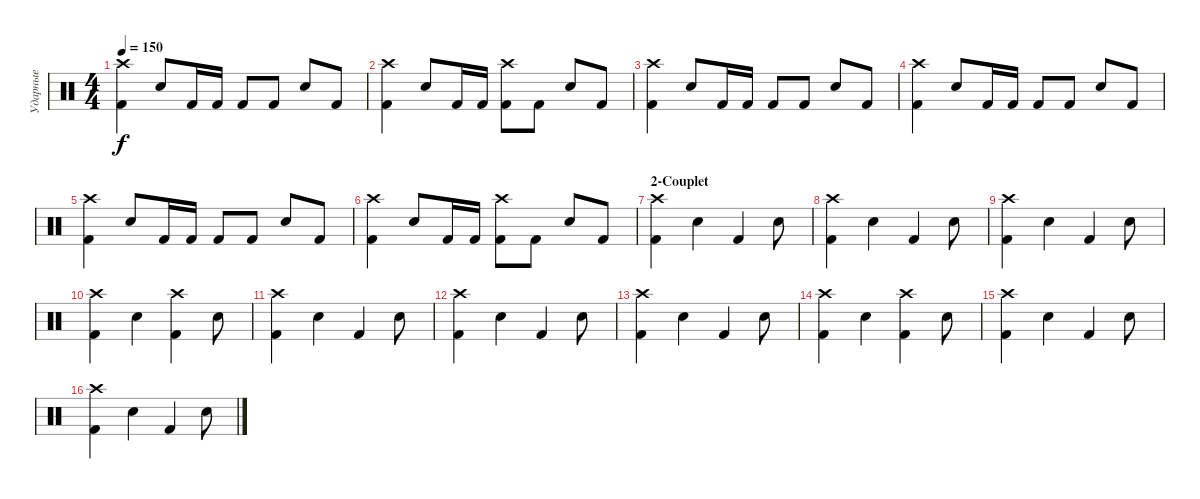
\track ("Ударные" "Ударные") {instrument percussion}
\staff {score}
\articulation defaults
\ts (4 4)
\tempo 150
\clef neutral
\ks c
("Crash high (hit)" "Kick (hit) 2").4{dy f} "Electric Snare (hit)".8 "Kick (hit) 2".16 "Kick (hit) 2".16 "Kick (hit) 2".8 "Kick (hit) 2".8 "Electric Snare (hit)".8 "Kick (hit) 2".8 |
("Crash high (hit)" "Kick (hit) 2").4 "Electric Snare (hit)".8 "Kick (hit) 2".16 "Kick (hit) 2".16 ("Kick (hit) 2" "Crash high (hit)").8 "Kick (hit) 2".8 "Electric Snare (hit)".8 "Kick (hit) 2".8 |
("Crash high (hit)" "Kick (hit) 2").4 "Electric Snare (hit)".8 "Kick (hit) 2".16 "Kick (hit) 2".16 "Kick (hit) 2".8 "Kick (hit) 2".8 "Electric Snare (hit)".8 "Kick (hit) 2".8 |
("Crash high (hit)" "Kick (hit) 2").4 "Electric Snare (hit)".8 "Kick (hit) 2".16 "Kick (hit) 2".16 "Kick (hit) 2".8 "Kick (hit) 2".8 "Electric Snare (hit)".8 "Kick (hit) 2".8 |
("Crash high (hit)" "Kick (hit) 2").4 "Electric Snare (hit)".8 "Kick (hit) 2".16 "Kick (hit) 2".16 "Kick (hit) 2".8 "Kick (hit) 2".8 "Electric Snare (hit)".8 "Kick (hit) 2".8 |
("Crash high (hit)" "Kick (hit) 2").4 "Electric Snare (hit)".8 "Kick (hit) 2".16 "Kick (hit) 2".16 ("Crash high (hit)" "Kick (hit) 2").8 "Kick (hit) 2".8 "Electric Snare (hit)".8 "Kick (hit) 2".8 |
\section ("" "2-Couplet")
("Crash high (hit)" "Kick (hit) 2").4 "Electric Snare (hit)".4 "Kick (hit) 2".4 "Electric Snare (hit)".8 |
("Crash high (hit)" "Kick (hit) 2").4 "Electric Snare (hit)".4 "Kick (hit) 2".4 "Electric Snare (hit)".8 |
("Crash high (hit)" "Kick (hit) 2").4 "Electric Snare (hit)".4 "Kick (hit) 2".4 "Electric Snare (hit)".8 |
("Crash high (hit)" "Kick (hit) 2").4 "Electric Snare (hit)".4 ("Crash high (hit)" "Kick (hit) 2").4 "Electric Snare (hit)".8 |
("Crash high (hit)" "Kick (hit) 2").4 "Electric Snare (hit)".4 "Kick (hit) 2".4 "Electric Snare (hit)".8 |
("Crash high (hit)" "Kick (hit) 2").4 "Electric Snare (hit)".4 "Kick (hit) 2".4 "Electric Snare (hit)".8 |
("Crash high (hit)" "Kick (hit) 2").4 "Electric Snare (hit)".4 "Kick (hit) 2".4 "Electric Snare (hit)".8 |
("Crash high (hit)" "Kick (hit) 2").4 "Electric Snare (hit)".4 ("Crash high (hit)" "Kick (hit) 2").4 "Electric Snare (hit)".8 |
("Crash high (hit)" "Kick (hit) 2").4 "Electric Snare (hit)".4 "Kick (hit) 2".4 "Electric Snare (hit)".8 |
("Crash high (hit)" "Kick (hit) 2").4 "Electric Snare (hit)".4 "Kick (hit) 2".4 "Electric Snare (hit)".8
